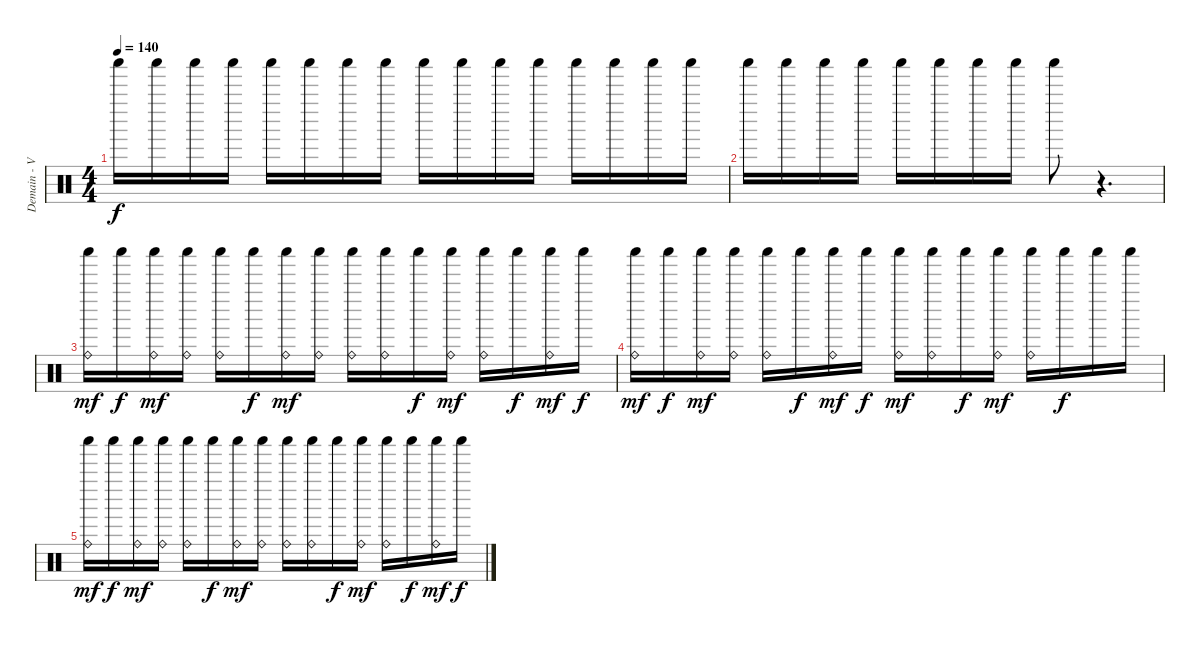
\track ("Demain - Various Perc." "Demain - V") {instrument percussion}
\staff {score}
\articulation defaults
\ts (4 4)
\tempo 140
\clef neutral
\ks c "Shaker (hit)".16{dy f} "Shaker (hit)".16 "Shaker (hit)".16 "Shaker (hit)".16 "Shaker (hit)".16 "Shaker (hit)".16 "Shaker (hit)".16 "Shaker (hit)".16 "Shaker (hit)".16 "Shaker (hit)".16 "Shaker (hit)".16 "Shaker (hit)".16 "Shaker (hit)".16 "Shaker (hit)".16 "Shaker (hit)".16 "Shaker (hit)".16
|
"Shaker (hit)".16 "Shaker (hit)".16 "Shaker (hit)".16 "Shaker (hit)".16 "Shaker (hit)".16 "Shaker (hit)".16 "Shaker (hit)".16 "Shaker (hit)".16 "Shaker (hit)".8 r.4{d} |
("Shaker (hit)" "Ride (bell)").16{dy mf} "Shaker (hit)".16{dy f} ("Shaker (hit)" "Ride (bell)").16{dy mf} ("Shaker (hit)" "Ride (bell)").16 ("Shaker (hit)" "Ride (bell)").16 "Shaker (hit)".16{dy f} ("Shaker (hit)" "Ride (bell)").16{dy mf} ("Shaker (hit)" "Ride (bell)").16 ("Shaker (hit)" "Ride (bell)").16 ("Shaker (hit)" "Ride (bell)").16 "Shaker (hit)".16{dy f} ("Shaker (hit)" "Ride (bell)").16{dy mf} ("Shaker (hit)" "Ride (bell)").16 "Shaker (hit)".16{dy f} ("Shaker (hit)" "Ride (bell)").16{dy mf} "Shaker (hit)".16{dy f} |
("Shaker (hit)" "Ride (bell)").16{dy mf} "Shaker (hit)".16{dy f} ("Shaker (hit)" "Ride (bell)").16{dy mf} ("Shaker (hit)" "Ride (bell)").16 ("Shaker (hit)" "Ride (bell)").16 "Shaker (hit)".16{dy f} ("Shaker (hit)" "Ride (bell)").16{dy mf} "Shaker (hit)".16{dy f} ("Shaker (hit)" "Ride (bell)").16{dy mf} ("Shaker (hit)" "Ride (bell)").16 "Shaker (hit)".16{dy f} ("Shaker (hit)" "Ride (bell)").16{dy mf} ("Shaker (hit)" "Ride (bell)").16 "Shaker (hit)".16{dy f} "Shaker (hit)".16 "Shaker (hit)".16 |
("Shaker (hit)" "Ride (bell)").16{dy mf} "Shaker (hit)".16{dy f} ("Shaker (hit)" "Ride (bell)").16{dy mf} ("Shaker (hit)" "Ride (bell)").16 ("Shaker (hit)" "Ride (bell)").16 "Shaker (hit)".16{dy f} ("Shaker (hit)" "Ride (bell)").16{dy mf} ("Shaker (hit)" "Ride (bell)").16 ("Shaker (hit)" "Ride (bell)").16 ("Shaker (hit)" "Ride (bell)").16 "Shaker (hit)".16{dy f} ("Shaker (hit)" "Ride (bell)").16{dy mf} ("Shaker (hit)" "Ride (bell)").16 "Shaker (hit)".16{dy f} ("Shaker (hit)" "Ride (bell)").16{dy mf} "Shaker (hit)".16{dy f}
